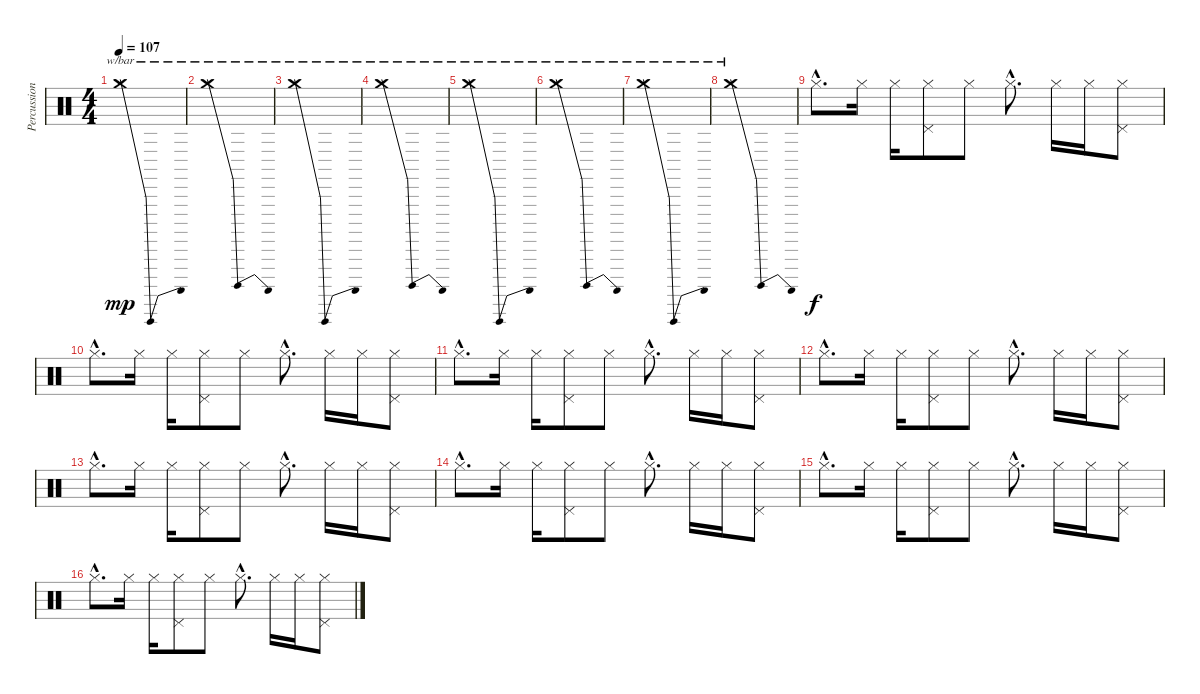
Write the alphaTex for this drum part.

\track ("Percussions" "Percussion") {instrument percussion}
\staff {score}
\articulation defaults
\ts (4 4)
\tempo 107
\clef neutral
\ks c "Crash medium (hit)".1{tbe (dip default 0 0 30 -24 60 0) dy mp}
|
"Crash medium (hit)".1{tbe (dip default 0 0 30 4 60 0)} |
"Crash medium (hit)".1{tbe (dip default 0 0 30 -24 60 0)} |
"Crash medium (hit)".1{tbe (dip default 0 0 30 4 60 0)} |
"Crash medium (hit)".1{tbe (dip default 0 0 30 -24 60 0)} |
"Crash medium (hit)".1{tbe (dip default 0 0 30 4 60 0)} |
"Crash medium (hit)".1{tbe (dip default 0 0 30 -24 60 0)} |
"Crash medium (hit)".1{tbe (dip default 0 0 30 4 60 0)} |
"Hi-Hat (closed)"{hac}.8{d dy f} "Hi-Hat (closed)".16 "Hi-Hat (closed)".16 ("Hi-Hat (closed)" "Pedal Hi-Hat (hit)").8 "Hi-Hat (closed)".8 "Hi-Hat (closed)"{hac}.8{d} "Hi-Hat (closed)".16 "Hi-Hat (closed)".16 ("Hi-Hat (closed)" "Pedal Hi-Hat (hit)").8 |
"Hi-Hat (closed)"{hac}.8{d} "Hi-Hat (closed)".16 "Hi-Hat (closed)".16 ("Hi-Hat (closed)" "Pedal Hi-Hat (hit)").8 "Hi-Hat (closed)".8 "Hi-Hat (closed)"{hac}.8{d} "Hi-Hat (closed)".16 "Hi-Hat (closed)".16 ("Hi-Hat (closed)" "Pedal Hi-Hat (hit)").8 |
"Hi-Hat (closed)"{hac}.8{d} "Hi-Hat (closed)".16 "Hi-Hat (closed)".16 ("Hi-Hat (closed)" "Pedal Hi-Hat (hit)").8 "Hi-Hat (closed)".8 "Hi-Hat (closed)"{hac}.8{d} "Hi-Hat (closed)".16 "Hi-Hat (closed)".16 ("Hi-Hat (closed)" "Pedal Hi-Hat (hit)").8 |
"Hi-Hat (closed)"{hac}.8{d} "Hi-Hat (closed)".16 "Hi-Hat (closed)".16 ("Hi-Hat (closed)" "Pedal Hi-Hat (hit)").8 "Hi-Hat (closed)".8 "Hi-Hat (closed)"{hac}.8{d} "Hi-Hat (closed)".16 "Hi-Hat (closed)".16 ("Hi-Hat (closed)" "Pedal Hi-Hat (hit)").8 |
"Hi-Hat (closed)"{hac}.8{d} "Hi-Hat (closed)".16 "Hi-Hat (closed)".16 ("Hi-Hat (closed)" "Pedal Hi-Hat (hit)").8 "Hi-Hat (closed)".8 "Hi-Hat (closed)"{hac}.8{d} "Hi-Hat (closed)".16 "Hi-Hat (closed)".16 ("Hi-Hat (closed)" "Pedal Hi-Hat (hit)").8 |
"Hi-Hat (closed)"{hac}.8{d} "Hi-Hat (closed)".16 "Hi-Hat (closed)".16 ("Hi-Hat (closed)" "Pedal Hi-Hat (hit)").8 "Hi-Hat (closed)".8 "Hi-Hat (closed)"{hac}.8{d} "Hi-Hat (closed)".16 "Hi-Hat (closed)".16 ("Hi-Hat (closed)" "Pedal Hi-Hat (hit)").8 |
"Hi-Hat (closed)"{hac}.8{d} "Hi-Hat (closed)".16 "Hi-Hat (closed)".16 ("Hi-Hat (closed)" "Pedal Hi-Hat (hit)").8 "Hi-Hat (closed)".8 "Hi-Hat (closed)"{hac}.8{d} "Hi-Hat (closed)".16 "Hi-Hat (closed)".16 ("Hi-Hat (closed)" "Pedal Hi-Hat (hit)").8 |
"Hi-Hat (closed)"{hac}.8{d} "Hi-Hat (closed)".16 "Hi-Hat (closed)".16 ("Hi-Hat (closed)" "Pedal Hi-Hat (hit)").8 "Hi-Hat (closed)".8 "Hi-Hat (closed)"{hac}.8{d} "Hi-Hat (closed)".16 "Hi-Hat (closed)".16 ("Hi-Hat (closed)" "Pedal Hi-Hat (hit)").8
